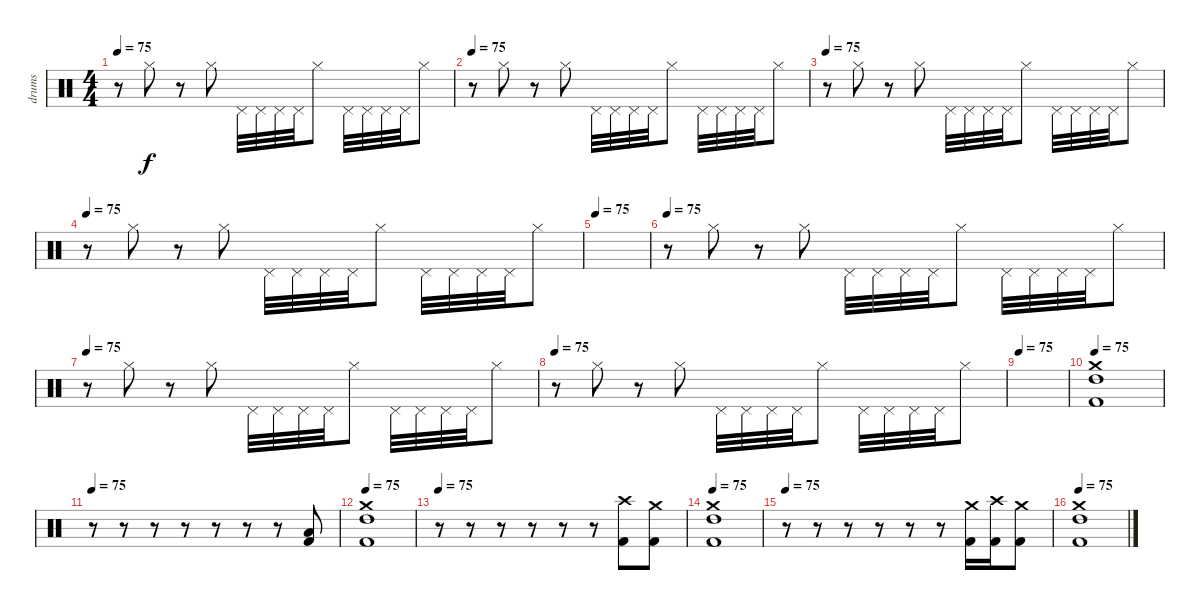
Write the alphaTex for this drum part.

\track ("drums" "drums") {instrument percussion}
\staff {score}
\articulation defaults
\ts (4 4)
\tempo 75
\clef neutral
\ks c
r.8{dy f} "Hi-Hat (closed)".8 r.8 "Hi-Hat (closed)".8 "Pedal Hi-Hat (hit)".32 "Pedal Hi-Hat (hit)".32 "Pedal Hi-Hat (hit)".32 "Pedal Hi-Hat (hit)".32 "Hi-Hat (closed)".8 "Pedal Hi-Hat (hit)".32 "Pedal Hi-Hat (hit)".32 "Pedal Hi-Hat (hit)".32 "Pedal Hi-Hat (hit)".32 "Hi-Hat (closed)".8 |
\tempo 75
r.8 "Hi-Hat (closed)".8 r.8 "Hi-Hat (closed)".8 "Pedal Hi-Hat (hit)".32 "Pedal Hi-Hat (hit)".32 "Pedal Hi-Hat (hit)".32 "Pedal Hi-Hat (hit)".32 "Hi-Hat (closed)".8 "Pedal Hi-Hat (hit)".32 "Pedal Hi-Hat (hit)".32 "Pedal Hi-Hat (hit)".32 "Pedal Hi-Hat (hit)".32 "Hi-Hat (closed)".8 |
\tempo 75
r.8 "Hi-Hat (closed)".8 r.8 "Hi-Hat (closed)".8 "Pedal Hi-Hat (hit)".32 "Pedal Hi-Hat (hit)".32 "Pedal Hi-Hat (hit)".32 "Pedal Hi-Hat (hit)".32 "Hi-Hat (closed)".8 "Pedal Hi-Hat (hit)".32 "Pedal Hi-Hat (hit)".32 "Pedal Hi-Hat (hit)".32 "Pedal Hi-Hat (hit)".32 "Hi-Hat (closed)".8 |
\tempo 75
r.8 "Hi-Hat (closed)".8 r.8 "Hi-Hat (closed)".8 "Pedal Hi-Hat (hit)".32 "Pedal Hi-Hat (hit)".32 "Pedal Hi-Hat (hit)".32 "Pedal Hi-Hat (hit)".32 "Hi-Hat (closed)".8 "Pedal Hi-Hat (hit)".32 "Pedal Hi-Hat (hit)".32 "Pedal Hi-Hat (hit)".32 "Pedal Hi-Hat (hit)".32 "Hi-Hat (closed)".8 |
\tempo 75
|
\tempo 75
r.8 "Hi-Hat (closed)".8 r.8 "Hi-Hat (closed)".8 "Pedal Hi-Hat (hit)".32 "Pedal Hi-Hat (hit)".32 "Pedal Hi-Hat (hit)".32 "Pedal Hi-Hat (hit)".32 "Hi-Hat (closed)".8 "Pedal Hi-Hat (hit)".32 "Pedal Hi-Hat (hit)".32 "Pedal Hi-Hat (hit)".32 "Pedal Hi-Hat (hit)".32 "Hi-Hat (closed)".8 |
\tempo 75
r.8 "Hi-Hat (closed)".8 r.8 "Hi-Hat (closed)".8 "Pedal Hi-Hat (hit)".32 "Pedal Hi-Hat (hit)".32 "Pedal Hi-Hat (hit)".32 "Pedal Hi-Hat (hit)".32 "Hi-Hat (closed)".8 "Pedal Hi-Hat (hit)".32 "Pedal Hi-Hat (hit)".32 "Pedal Hi-Hat (hit)".32 "Pedal Hi-Hat (hit)".32 "Hi-Hat (closed)".8 |
\tempo 75
r.8 "Hi-Hat (closed)".8 r.8 "Hi-Hat (closed)".8 "Pedal Hi-Hat (hit)".32 "Pedal Hi-Hat (hit)".32 "Pedal Hi-Hat (hit)".32 "Pedal Hi-Hat (hit)".32 "Hi-Hat (closed)".8 "Pedal Hi-Hat (hit)".32 "Pedal Hi-Hat (hit)".32 "Pedal Hi-Hat (hit)".32 "Pedal Hi-Hat (hit)".32 "Hi-Hat (closed)".8 |
\tempo 75
|
\tempo 75
("Crash medium (hit)" "High Tom (hit)" "Kick (hit) 2").1 |
\tempo 75
r.8 r.8 r.8 r.8 r.8 r.8 r.8 ("Low Floor Tom (hit)" "Kick (hit) 2").8 |
\tempo 75
("Crash medium (hit)" "High Tom (hit)" "Kick (hit) 2").1 |
\tempo 75
r.8 r.8 r.8 r.8 r.8 r.8 ("Crash high (hit)" "Kick (hit) 2").8 ("Crash medium (hit)" "Kick (hit) 2").8 |
\tempo 75
("Crash medium (hit)" "High Tom (hit)" "Kick (hit) 2").1 |
\tempo 75
r.8 r.8 r.8 r.8 r.8 r.8 ("Crash medium (hit)" "Kick (hit) 2").16 ("Crash high (hit)" "Kick (hit) 2").16 ("Crash medium (hit)" "Kick (hit) 2").8 |
\tempo 75
("Crash medium (hit)" "High Tom (hit)" "Kick (hit) 2").1
